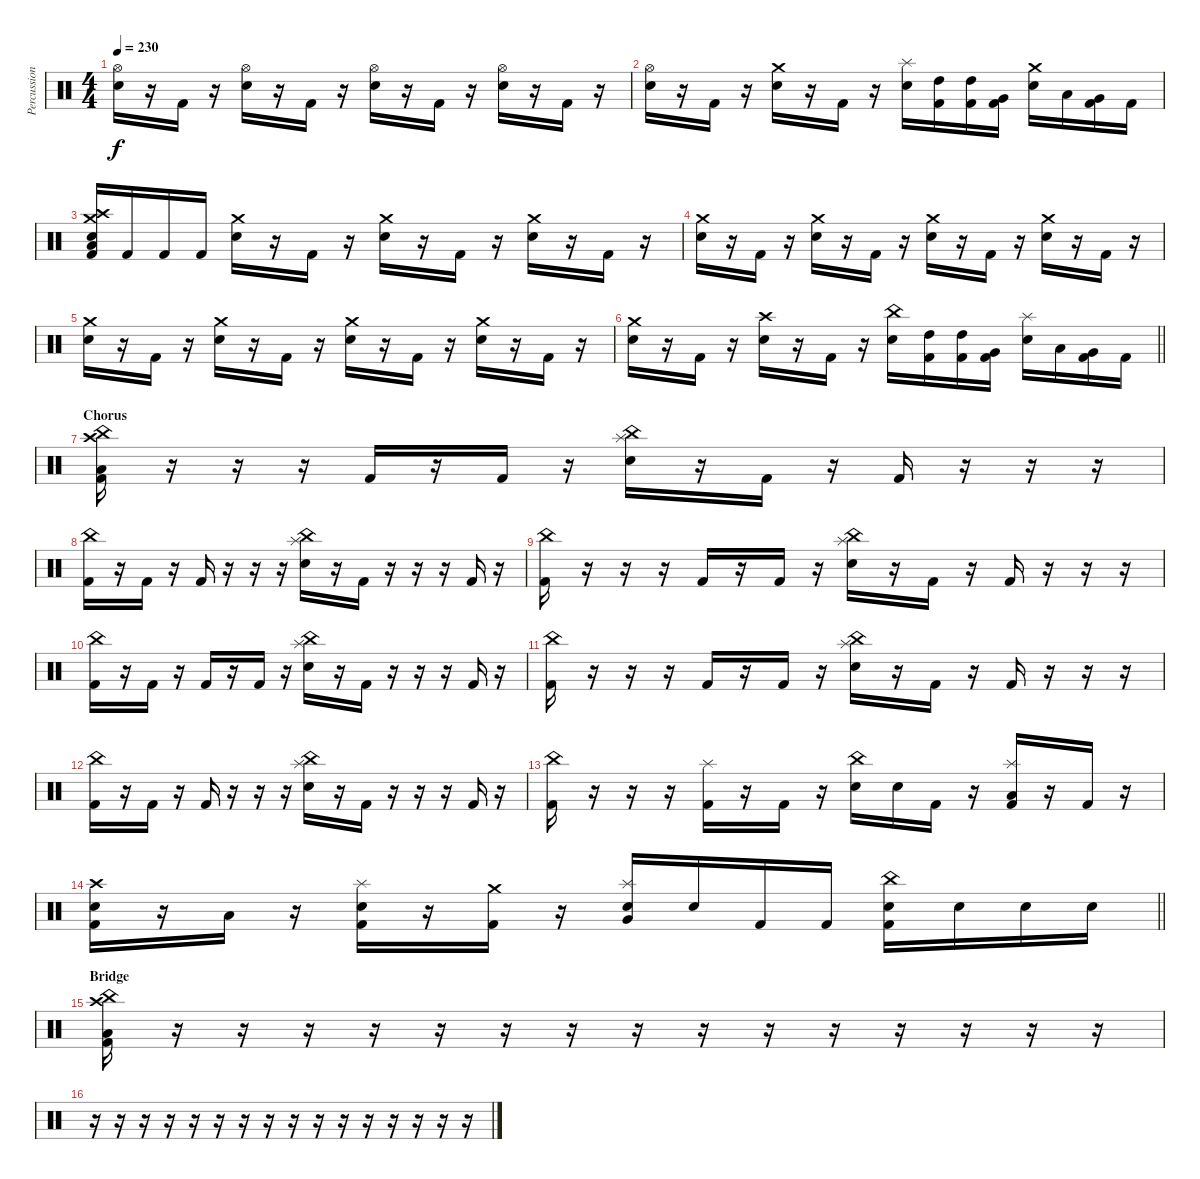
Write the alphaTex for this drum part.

\track ("Percussion" "Percussion") {instrument percussion}
\staff {score}
\articulation defaults
\ts (4 4)
\tempo 230
\clef neutral
\ks c
("Hi-Hat (open)" "Electric Snare (hit)").16{dy f} r.16 "Kick (hit) 2".16 r.16 ("Hi-Hat (open)" "Electric Snare (hit)").16 r.16 "Kick (hit) 2".16 r.16 ("Hi-Hat (open)" "Electric Snare (hit)").16 r.16 "Kick (hit) 2".16 r.16 ("Hi-Hat (open)" "Electric Snare (hit)").16 r.16 "Kick (hit) 2".16 r.16 |
("Hi-Hat (open)" "Electric Snare (hit)").16 r.16 "Kick (hit) 2".16 r.16 ("Crash medium (hit)" "Electric Snare (hit)").16 r.16 "Kick (hit) 2".16 r.16 ("Splash (hit)" "Electric Snare (hit)").16 ("High Tom (hit)" "Kick (hit) 2").16 ("High Tom (hit)" "Kick (hit) 2").16 ("Very Low Tom (hit)" "Kick (hit) 2").16 ("Crash medium (hit)" "Electric Snare (hit)").16 "Low Tom (hit)".16 ("Very Low Tom (hit)" "Kick (hit) 2").16 "Kick (hit) 2".16 |
("Crash high (hit)" "Crash medium (hit)" "Electric Snare (hit)" "Low Floor Tom (hit)" "Kick (hit) 2").16 "Kick (hit) 2".16 "Kick (hit) 2".16 "Kick (hit) 2".16 ("Crash medium (hit)" "Electric Snare (hit)").16 r.16 "Kick (hit) 2".16 r.16 ("Crash medium (hit)" "Electric Snare (hit)").16 r.16 "Kick (hit) 2".16 r.16 ("Crash medium (hit)" "Electric Snare (hit)").16 r.16 "Kick (hit) 2".16 r.16 |
("Crash medium (hit)" "Electric Snare (hit)").16 r.16 "Kick (hit) 2".16 r.16 ("Crash medium (hit)" "Electric Snare (hit)").16 r.16 "Kick (hit) 2".16 r.16 ("Crash medium (hit)" "Electric Snare (hit)").16 r.16 "Kick (hit) 2".16 r.16 ("Crash medium (hit)" "Electric Snare (hit)").16 r.16 "Kick (hit) 2".16 r.16 |
("Crash medium (hit)" "Electric Snare (hit)").16 r.16 "Kick (hit) 2".16 r.16 ("Crash medium (hit)" "Electric Snare (hit)").16 r.16 "Kick (hit) 2".16 r.16 ("Crash medium (hit)" "Electric Snare (hit)").16 r.16 "Kick (hit) 2".16 r.16 ("Crash medium (hit)" "Electric Snare (hit)").16 r.16 "Kick (hit) 2".16 r.16 |
\barLineRight lightlight
("Crash medium (hit)" "Electric Snare (hit)").16 r.16 "Kick (hit) 2".16 r.16 ("Crash high (hit)" "Electric Snare (hit)").16 r.16 "Kick (hit) 2".16 r.16 ("China (hit)" "Electric Snare (hit)").16 ("High Tom (hit)" "Kick (hit) 2").16 ("High Tom (hit)" "Kick (hit) 2").16 ("Very Low Tom (hit)" "Kick (hit) 2").16 ("Splash (hit)" "Electric Snare (hit)").16 "Low Tom (hit)".16 ("Very Low Tom (hit)" "Kick (hit) 2").16 "Kick (hit) 2".16 |
\section ("" "Chorus")
("China (hit)" "Crash high (hit)" "Low Floor Tom (hit)" "Kick (hit) 2").16 r.16 r.16 r.16 "Kick (hit) 2".16 r.16 "Kick (hit) 2".16 r.16 ("China (hit)" "Splash (hit)" "Electric Snare (hit)").16 r.16 "Kick (hit) 2".16 r.16 "Kick (hit) 2".16 r.16 r.16 r.16 |
("China (hit)" "Kick (hit) 2").16 r.16 "Kick (hit) 2".16 r.16 "Kick (hit) 2".16 r.16 r.16 r.16 ("China (hit)" "Splash (hit)" "Electric Snare (hit)").16 r.16 "Kick (hit) 2".16 r.16 r.16 r.16 "Kick (hit) 2".16 r.16 |
("China (hit)" "Kick (hit) 2").16 r.16 r.16 r.16 "Kick (hit) 2".16 r.16 "Kick (hit) 2".16 r.16 ("China (hit)" "Splash (hit)" "Electric Snare (hit)").16 r.16 "Kick (hit) 2".16 r.16 "Kick (hit) 2".16 r.16 r.16 r.16 |
("China (hit)" "Kick (hit) 2").16 r.16 "Kick (hit) 2".16 r.16 "Kick (hit) 2".16 r.16 "Kick (hit) 2".16 r.16 ("China (hit)" "Splash (hit)" "Electric Snare (hit)").16 r.16 "Kick (hit) 2".16 r.16 r.16 r.16 "Kick (hit) 2".16 r.16 |
("China (hit)" "Kick (hit) 2").16 r.16 r.16 r.16 "Kick (hit) 2".16 r.16 "Kick (hit) 2".16 r.16 ("China (hit)" "Splash (hit)" "Electric Snare (hit)").16 r.16 "Kick (hit) 2".16 r.16 "Kick (hit) 2".16 r.16 r.16 r.16 |
("China (hit)" "Kick (hit) 2").16 r.16 "Kick (hit) 2".16 r.16 "Kick (hit) 2".16 r.16 r.16 r.16 ("China (hit)" "Splash (hit)" "Electric Snare (hit)").16 r.16 "Kick (hit) 2".16 r.16 r.16 r.16 "Kick (hit) 2".16 r.16 |
("China (hit)" "Kick (hit) 2").16 r.16 r.16 r.16 ("Splash (hit)" "Kick (hit) 2").16 r.16 "Kick (hit) 2".16 r.16 ("China (hit)" "Electric Snare (hit)").16 "Electric Snare (hit)".16 "Kick (hit) 2".16 r.16 ("Splash (hit)" "Low Tom (hit)" "Kick (hit) 2").16 r.16 "Kick (hit) 2".16 r.16 |
\barLineRight lightlight
("Crash high (hit)" "Electric Snare (hit)" "Kick (hit) 2").16 r.16 "Low Tom (hit)".16 r.16 ("Splash (hit)" "Electric Snare (hit)" "Kick (hit) 2").16 r.16 ("Crash medium (hit)" "Kick (hit) 2").16 r.16 ("Splash (hit)" "Electric Snare (hit)" "Very Low Tom (hit)").16 "Electric Snare (hit)".16 "Kick (hit) 2".16 "Kick (hit) 2".16 ("China (hit)" "Electric Snare (hit)" "Kick (hit) 2").16 "Electric Snare (hit)".16 "Electric Snare (hit)".16 "Electric Snare (hit)".16 |
\section ("" "Bridge")
("China (hit)" "Crash high (hit)" "Low Floor Tom (hit)" "Kick (hit) 2").16 r.16 r.16 r.16 r.16 r.16 r.16 r.16 r.16 r.16 r.16 r.16 r.16 r.16 r.16 r.16 |
r.16 r.16 r.16 r.16 r.16 r.16 r.16 r.16 r.16 r.16 r.16 r.16 r.16 r.16 r.16 r.16
